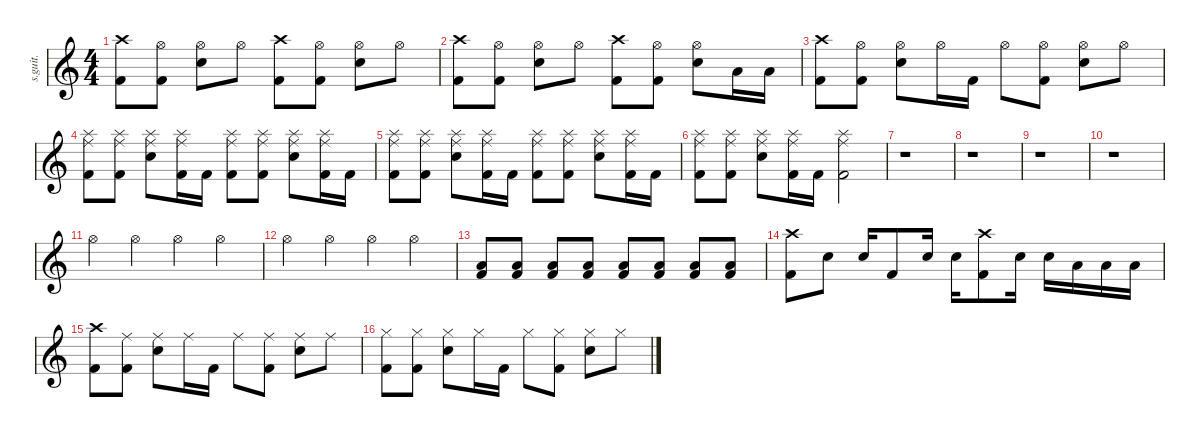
\defaultSystemsLayout 4
\hideDynamics
\bracketExtendMode nobrackets
\track ("" "s.guit.") {instrument percussion}
\staff {score}
\articulation defaults
\ts (4 4)
\tempo (82 hide)
\clef g2
\ks c
("Crash high (hit)" "Kick (hit) 2").8{dy f} ("Hi-Hat (open)" "Kick (hit) 2").8 ("Hi-Hat (open)" "Snare (hit) 2").8 "Hi-Hat (open)".8 ("Crash high (hit)" "Kick (hit) 2").8 ("Hi-Hat (open)" "Kick (hit) 2").8 ("Hi-Hat (open)" "Snare (hit) 2").8 "Hi-Hat (open)".8 |
("Crash high (hit)" "Kick (hit) 2").8 ("Hi-Hat (open)" "Kick (hit) 2").8 ("Hi-Hat (open)" "Snare (hit) 2").8 "Hi-Hat (open)".8 ("Crash high (hit)" "Kick (hit) 2").8 ("Hi-Hat (open)" "Kick (hit) 2").8 ("Hi-Hat (open)" "Snare (hit) 2").8 "Low Tom (hit)".16 "Low Tom (hit)".16 |
("Crash high (hit)" "Kick (hit) 2").8 ("Hi-Hat (open)" "Kick (hit) 2").8 ("Hi-Hat (open)" "Snare (hit) 2").8 "Hi-Hat (open)".16 "Kick (hit) 2".16 "Hi-Hat (open)".8 ("Hi-Hat (open)" "Kick (hit) 2").8 ("Hi-Hat (open)" "Snare (hit) 2").8 "Hi-Hat (open)".8 |
("Splash (hit)" "Ride (middle)" "Kick (hit) 2").8 ("Splash (hit)" "Ride (middle)" "Kick (hit) 2").8 ("Splash (hit)" "Ride (middle)" "Snare (hit) 2").8 ("Splash (hit)" "Ride (middle)" "Kick (hit) 2").16 "Kick (hit) 2".16 ("Splash (hit)" "Ride (middle)" "Kick (hit) 2").8 ("Splash (hit)" "Ride (middle)" "Kick (hit) 2").8 ("Splash (hit)" "Ride (middle)" "Snare (hit) 2").8 ("Splash (hit)" "Ride (middle)" "Kick (hit) 2").16 "Kick (hit) 2".16 |
("Splash (hit)" "Ride (middle)" "Kick (hit) 2").8 ("Splash (hit)" "Ride (middle)" "Kick (hit) 2").8 ("Splash (hit)" "Ride (middle)" "Snare (hit) 2").8 ("Splash (hit)" "Ride (middle)" "Kick (hit) 2").16 "Kick (hit) 2".16 ("Splash (hit)" "Ride (middle)" "Kick (hit) 2").8 ("Splash (hit)" "Ride (middle)" "Kick (hit) 2").8 ("Splash (hit)" "Ride (middle)" "Snare (hit) 2").8 ("Splash (hit)" "Ride (middle)" "Kick (hit) 2").16 "Kick (hit) 2".16 |
("Splash (hit)" "Ride (middle)" "Kick (hit) 2").8 ("Splash (hit)" "Ride (middle)" "Kick (hit) 2").8 ("Splash (hit)" "Ride (middle)" "Snare (hit) 2").8 ("Splash (hit)" "Ride (middle)" "Kick (hit) 2").16 "Kick (hit) 2".16 ("Splash (hit)" "Ride (middle)" "Kick (hit) 2").2 |
r.1 |
r.1 |
r.1 |
r.1 |
"Hi-Hat (open)".4 "Hi-Hat (open)".4 "Hi-Hat (open)".4 "Hi-Hat (open)".4 |
"Hi-Hat (open)".4 "Hi-Hat (open)".4 "Hi-Hat (open)".4 "Hi-Hat (open)".4 |
("Low Floor Tom (hit)" "Kick (hit) 2").8 ("Low Floor Tom (hit)" "Kick (hit) 2").8 ("Low Floor Tom (hit)" "Kick (hit) 2").8 ("Low Floor Tom (hit)" "Kick (hit) 2").8 ("Low Floor Tom (hit)" "Kick (hit) 2").8 ("Low Floor Tom (hit)" "Kick (hit) 2").8 ("Low Floor Tom (hit)" "Kick (hit) 2").8 ("Low Floor Tom (hit)" "Kick (hit) 2").8 |
("Crash high (hit)" "Kick (hit) 2").8 "Snare (hit) 2".8 "Snare (hit) 2".16 "Kick (hit) 2".8 "Snare (hit) 2".16 "Snare (hit) 2".16 ("Crash high (hit)" "Kick (hit) 2").8 "Snare (hit) 2".16 "Snare (hit) 2".16 "Low Tom (hit)".16 "Low Tom (hit)".16 "Low Floor Tom (hit)".16 |
("Crash high (hit)" "Kick (hit) 2").8 ("Ride (middle)" "Kick (hit) 2").8 ("Ride (middle)" "Snare (hit) 2").8 "Ride (middle)".16 "Kick (hit) 2".16 "Ride (middle)".8 ("Ride (middle)" "Kick (hit) 2").8 ("Ride (middle)" "Snare (hit) 2").8 "Ride (middle)".8 |
("Hi-Hat (closed)" "Kick (hit) 2").8 ("Hi-Hat (closed)" "Kick (hit) 2").8 ("Hi-Hat (closed)" "Snare (hit) 2").8 "Hi-Hat (closed)".16 "Kick (hit) 2".16 "Hi-Hat (closed)".8 ("Hi-Hat (closed)" "Kick (hit) 2").8 ("Hi-Hat (closed)" "Snare (hit) 2").8 "Hi-Hat (closed)".8
